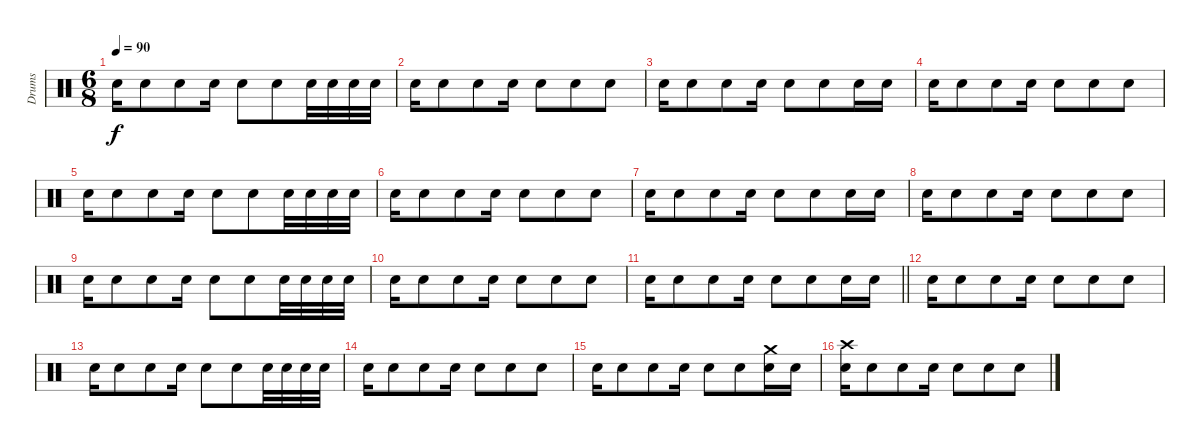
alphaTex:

\track ("Drums" "Drums") {instrument percussion}
\staff {score}
\articulation defaults
\ts (6 8)
\tempo 90
\clef neutral
\ks c "Electric Snare (hit)".16{dy f} "Electric Snare (hit)".8 "Electric Snare (hit)".8 "Electric Snare (hit)".16 "Electric Snare (hit)".8 "Electric Snare (hit)".8 "Electric Snare (hit)".32 "Electric Snare (hit)".32 "Electric Snare (hit)".32 "Electric Snare (hit)".32
|
"Electric Snare (hit)".16 "Electric Snare (hit)".8 "Electric Snare (hit)".8 "Electric Snare (hit)".16 "Electric Snare (hit)".8 "Electric Snare (hit)".8 "Electric Snare (hit)".8 |
"Electric Snare (hit)".16 "Electric Snare (hit)".8 "Electric Snare (hit)".8 "Electric Snare (hit)".16 "Electric Snare (hit)".8 "Electric Snare (hit)".8 "Electric Snare (hit)".16 "Electric Snare (hit)".16 |
"Electric Snare (hit)".16 "Electric Snare (hit)".8 "Electric Snare (hit)".8 "Electric Snare (hit)".16 "Electric Snare (hit)".8 "Electric Snare (hit)".8 "Electric Snare (hit)".8 |
"Electric Snare (hit)".16 "Electric Snare (hit)".8 "Electric Snare (hit)".8 "Electric Snare (hit)".16 "Electric Snare (hit)".8 "Electric Snare (hit)".8 "Electric Snare (hit)".32 "Electric Snare (hit)".32 "Electric Snare (hit)".32 "Electric Snare (hit)".32 |
"Electric Snare (hit)".16 "Electric Snare (hit)".8 "Electric Snare (hit)".8 "Electric Snare (hit)".16 "Electric Snare (hit)".8 "Electric Snare (hit)".8 "Electric Snare (hit)".8 |
"Electric Snare (hit)".16 "Electric Snare (hit)".8 "Electric Snare (hit)".8 "Electric Snare (hit)".16 "Electric Snare (hit)".8 "Electric Snare (hit)".8 "Electric Snare (hit)".16 "Electric Snare (hit)".16 |
"Electric Snare (hit)".16 "Electric Snare (hit)".8 "Electric Snare (hit)".8 "Electric Snare (hit)".16 "Electric Snare (hit)".8 "Electric Snare (hit)".8 "Electric Snare (hit)".8 |
"Electric Snare (hit)".16 "Electric Snare (hit)".8 "Electric Snare (hit)".8 "Electric Snare (hit)".16 "Electric Snare (hit)".8 "Electric Snare (hit)".8 "Electric Snare (hit)".32 "Electric Snare (hit)".32 "Electric Snare (hit)".32 "Electric Snare (hit)".32 |
"Electric Snare (hit)".16 "Electric Snare (hit)".8 "Electric Snare (hit)".8 "Electric Snare (hit)".16 "Electric Snare (hit)".8 "Electric Snare (hit)".8 "Electric Snare (hit)".8 |
\barLineRight lightlight "Electric Snare (hit)".16 "Electric Snare (hit)".8 "Electric Snare (hit)".8 "Electric Snare (hit)".16 "Electric Snare (hit)".8 "Electric Snare (hit)".8 "Electric Snare (hit)".16 "Electric Snare (hit)".16
|
"Electric Snare (hit)".16 "Electric Snare (hit)".8 "Electric Snare (hit)".8 "Electric Snare (hit)".16 "Electric Snare (hit)".8 "Electric Snare (hit)".8 "Electric Snare (hit)".8 |
"Electric Snare (hit)".16 "Electric Snare (hit)".8 "Electric Snare (hit)".8 "Electric Snare (hit)".16 "Electric Snare (hit)".8 "Electric Snare (hit)".8 "Electric Snare (hit)".32 "Electric Snare (hit)".32 "Electric Snare (hit)".32 "Electric Snare (hit)".32 |
"Electric Snare (hit)".16 "Electric Snare (hit)".8 "Electric Snare (hit)".8 "Electric Snare (hit)".16 "Electric Snare (hit)".8 "Electric Snare (hit)".8 "Electric Snare (hit)".8 |
"Electric Snare (hit)".16 "Electric Snare (hit)".8 "Electric Snare (hit)".8 "Electric Snare (hit)".16 "Electric Snare (hit)".8 "Electric Snare (hit)".8 ("Electric Snare (hit)" "Crash medium (hit)").16 "Electric Snare (hit)".16 |
("Electric Snare (hit)" "Crash high (hit)").16 "Electric Snare (hit)".8 "Electric Snare (hit)".8 "Electric Snare (hit)".16 "Electric Snare (hit)".8 "Electric Snare (hit)".8 "Electric Snare (hit)".8
